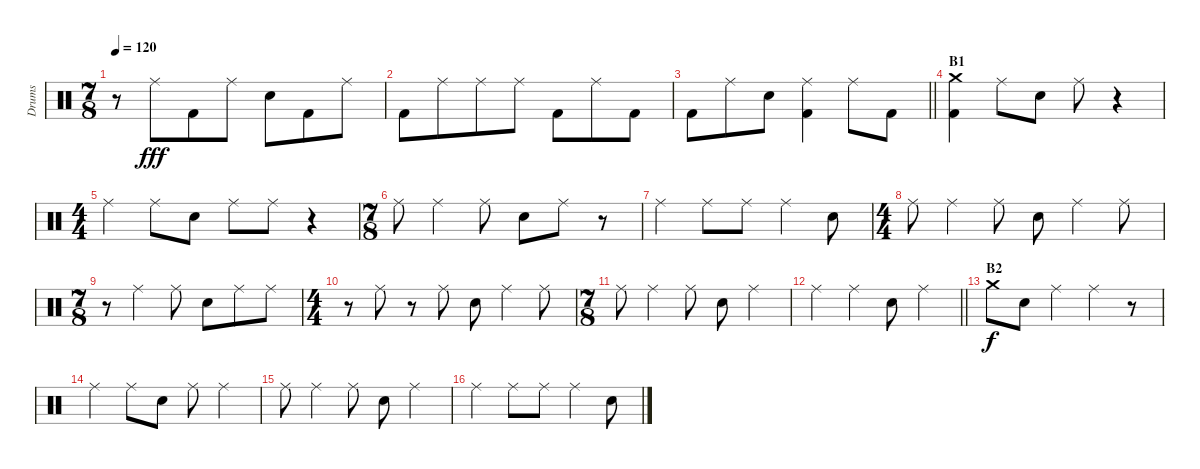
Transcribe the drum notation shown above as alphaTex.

\track ("Drums" "Drums") {instrument percussion}
\staff {score}
\articulation defaults
\ts (7 8)
\tempo 120
\clef neutral
\ks c
r.8{dy fff} "Ride (middle)".8 "Kick (hit) 2".8 "Ride (middle)".8 "Snare (hit) 2".8 "Kick (hit) 2".8 "Ride (middle)".8 |
"Kick (hit) 2".8 "Ride (middle)".8 "Ride (middle)".8 "Ride (middle)".8 "Kick (hit) 2".8 "Ride (middle)".8 "Kick (hit) 2".8 |
\barLineRight lightlight "Kick (hit) 2".8 "Ride (middle)".8 "Snare (hit) 2".8
("Ride (middle)" "Kick (hit) 2").4 "Ride (middle)".8 "Kick (hit) 2".8 |
\section ("" "B1")
("Crash medium (hit)" "Kick (hit) 2").4 "Ride (middle)".8 "Snare (hit) 2".8 "Ride (middle)".8 r.4 |
\ts (4 4)
"Ride (middle)".4 "Ride (middle)".8 "Snare (hit) 2".8 "Ride (middle)".8 "Ride (middle)".8 r.4 |
\ts (7 8)
"Ride (middle)".8 "Ride (middle)".4 "Ride (middle)".8 "Snare (hit) 2".8 "Ride (middle)".8 r.8 |
"Ride (middle)".4 "Ride (middle)".8 "Ride (middle)".8 "Ride (middle)".4 "Snare (hit) 2".8 |
\ts (4 4)
"Ride (middle)".8 "Ride (middle)".4 "Ride (middle)".8 "Snare (hit) 2".8 "Ride (middle)".4 "Ride (middle)".8 |
\ts (7 8)
r.8 "Ride (middle)".4 "Ride (middle)".8 "Snare (hit) 2".8 "Ride (middle)".8 "Ride (middle)".8 |
\ts (4 4)
r.8 "Ride (middle)".8 r.8 "Ride (middle)".8 "Snare (hit) 2".8 "Ride (middle)".4 "Ride (middle)".8 |
\ts (7 8)
"Ride (middle)".8 "Ride (middle)".4 "Ride (middle)".8 "Snare (hit) 2".8 "Ride (middle)".4 |
\barLineRight lightlight "Ride (middle)".4 "Ride (middle)".4 "Snare (hit) 2".8 "Ride (middle)".4
|
\section ("" "B2")
"Crash medium (hit)".8{dy f} "Snare (hit) 2".8 "Ride (middle)".4 "Ride (middle)".4 r.8 |
"Ride (middle)".4 "Ride (middle)".8 "Snare (hit) 2".8 "Ride (middle)".8 "Ride (middle)".4 |
"Ride (middle)".8 "Ride (middle)".4 "Ride (middle)".8 "Snare (hit) 2".8 "Ride (middle)".4 |
"Ride (middle)".4 "Ride (middle)".8 "Ride (middle)".8 "Ride (middle)".4 "Snare (hit) 2".8
